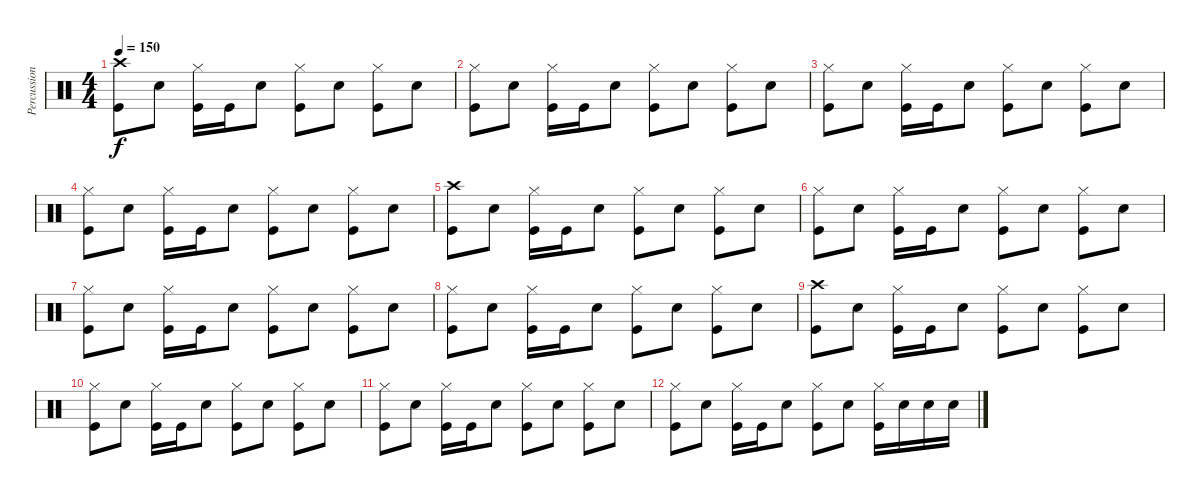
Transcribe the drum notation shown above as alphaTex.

\track ("Percussions" "Percussion") {instrument percussion}
\staff {score}
\articulation defaults
\ts (4 4)
\tempo 150
\clef neutral
\ks c
("Crash high (hit)" "Kick (hit)").8{dy f} "Electric Snare (hit)".8 ("Hi-Hat (closed)" "Kick (hit)").16 "Kick (hit)".16 "Electric Snare (hit)".8 ("Hi-Hat (closed)" "Kick (hit)").8 "Electric Snare (hit)".8 ("Hi-Hat (closed)" "Kick (hit)").8 "Electric Snare (hit)".8 |
("Hi-Hat (closed)" "Kick (hit)").8 "Electric Snare (hit)".8 ("Hi-Hat (closed)" "Kick (hit)").16 "Kick (hit)".16 "Electric Snare (hit)".8 ("Hi-Hat (closed)" "Kick (hit)").8 "Electric Snare (hit)".8 ("Hi-Hat (closed)" "Kick (hit)").8 "Electric Snare (hit)".8 |
("Hi-Hat (closed)" "Kick (hit)").8 "Electric Snare (hit)".8 ("Hi-Hat (closed)" "Kick (hit)").16 "Kick (hit)".16 "Electric Snare (hit)".8 ("Hi-Hat (closed)" "Kick (hit)").8 "Electric Snare (hit)".8 ("Hi-Hat (closed)" "Kick (hit)").8 "Electric Snare (hit)".8 |
("Hi-Hat (closed)" "Kick (hit)").8 "Electric Snare (hit)".8 ("Hi-Hat (closed)" "Kick (hit)").16 "Kick (hit)".16 "Electric Snare (hit)".8 ("Hi-Hat (closed)" "Kick (hit)").8 "Electric Snare (hit)".8 ("Hi-Hat (closed)" "Kick (hit)").8 "Electric Snare (hit)".8 |
("Crash high (hit)" "Kick (hit)").8 "Electric Snare (hit)".8 ("Hi-Hat (closed)" "Kick (hit)").16 "Kick (hit)".16 "Electric Snare (hit)".8 ("Hi-Hat (closed)" "Kick (hit)").8 "Electric Snare (hit)".8 ("Hi-Hat (closed)" "Kick (hit)").8 "Electric Snare (hit)".8 |
("Hi-Hat (closed)" "Kick (hit)").8 "Electric Snare (hit)".8 ("Hi-Hat (closed)" "Kick (hit)").16 "Kick (hit)".16 "Electric Snare (hit)".8 ("Hi-Hat (closed)" "Kick (hit)").8 "Electric Snare (hit)".8 ("Hi-Hat (closed)" "Kick (hit)").8 "Electric Snare (hit)".8 |
("Hi-Hat (closed)" "Kick (hit)").8 "Electric Snare (hit)".8 ("Hi-Hat (closed)" "Kick (hit)").16 "Kick (hit)".16 "Electric Snare (hit)".8 ("Hi-Hat (closed)" "Kick (hit)").8 "Electric Snare (hit)".8 ("Hi-Hat (closed)" "Kick (hit)").8 "Electric Snare (hit)".8 |
("Hi-Hat (closed)" "Kick (hit)").8 "Electric Snare (hit)".8 ("Hi-Hat (closed)" "Kick (hit)").16 "Kick (hit)".16 "Electric Snare (hit)".8 ("Hi-Hat (closed)" "Kick (hit)").8 "Electric Snare (hit)".8 ("Hi-Hat (closed)" "Kick (hit)").8 "Electric Snare (hit)".8 |
("Crash high (hit)" "Kick (hit)").8 "Electric Snare (hit)".8 ("Hi-Hat (closed)" "Kick (hit)").16 "Kick (hit)".16 "Electric Snare (hit)".8 ("Hi-Hat (closed)" "Kick (hit)").8 "Electric Snare (hit)".8 ("Hi-Hat (closed)" "Kick (hit)").8 "Electric Snare (hit)".8 |
("Hi-Hat (closed)" "Kick (hit)").8 "Electric Snare (hit)".8 ("Hi-Hat (closed)" "Kick (hit)").16 "Kick (hit)".16 "Electric Snare (hit)".8 ("Hi-Hat (closed)" "Kick (hit)").8 "Electric Snare (hit)".8 ("Hi-Hat (closed)" "Kick (hit)").8 "Electric Snare (hit)".8 |
("Hi-Hat (closed)" "Kick (hit)").8 "Electric Snare (hit)".8 ("Hi-Hat (closed)" "Kick (hit)").16 "Kick (hit)".16 "Electric Snare (hit)".8 ("Hi-Hat (closed)" "Kick (hit)").8 "Electric Snare (hit)".8 ("Hi-Hat (closed)" "Kick (hit)").8 "Electric Snare (hit)".8 |
("Hi-Hat (closed)" "Kick (hit)").8 "Electric Snare (hit)".8 ("Hi-Hat (closed)" "Kick (hit)").16 "Kick (hit)".16 "Electric Snare (hit)".8 ("Hi-Hat (closed)" "Kick (hit)").8 "Electric Snare (hit)".8 ("Hi-Hat (closed)" "Kick (hit)").16 "Electric Snare (hit)".16 "Electric Snare (hit)".16 "Electric Snare (hit)".16
